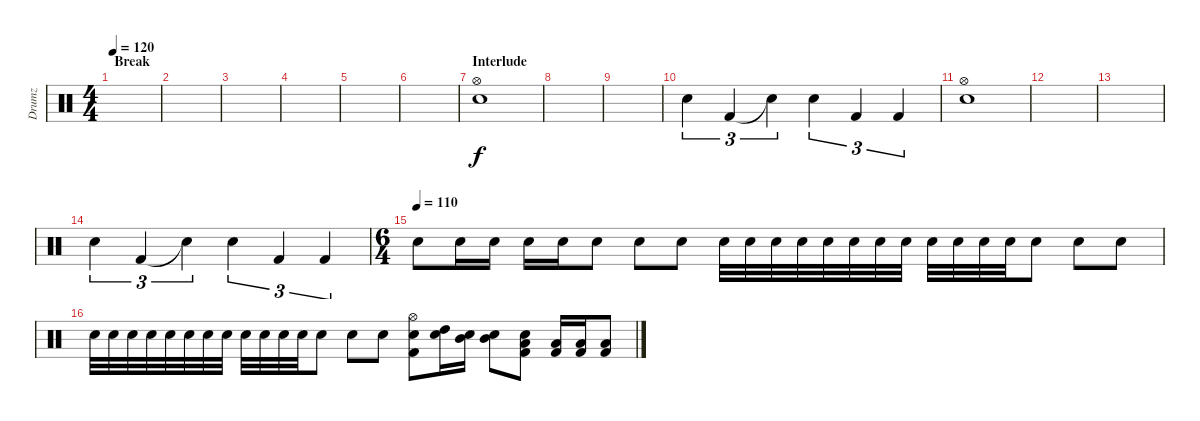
\track ("Drumz" "Drumz") {instrument percussion}
\staff {score}
\articulation defaults
\ts (4 4)
\section ("" "Break")
\tempo 120
\clef neutral
\ks c
|
|
|
|
|
|
\section ("" "Interlude")
("Hi-Hat (open)" "Snare (hit) 2").1 |
|
|
"Snare (hit) 2".4{tu (3 2)} "Kick (hit) 2".4{tu (3 2)} "Snare (hit)"{t}.4{tu (3 2)} "Snare (hit) 2".4{tu (3 2)} "Kick (hit) 2".4{tu (3 2)} "Kick (hit) 2".4{tu (3 2)} |
("Hi-Hat (open)" "Snare (hit) 2").1 |
|
|
"Snare (hit) 2".4{tu (3 2)} "Kick (hit) 2".4{tu (3 2)} "Snare (hit)"{t}.4{tu (3 2)} "Snare (hit) 2".4{tu (3 2)} "Kick (hit) 2".4{tu (3 2)} "Kick (hit) 2".4{tu (3 2)} |
\ts (6 4)
\tempo (110)
"Snare (hit) 2".8 "Snare (hit) 2".16 "Snare (hit) 2".16 "Snare (hit) 2".16 "Snare (hit) 2".16 "Snare (hit) 2".8 "Snare (hit) 2".8 "Snare (hit) 2".8 "Snare (hit) 2".32 "Snare (hit) 2".32 "Snare (hit) 2".32 "Snare (hit) 2".32 "Snare (hit) 2".32 "Snare (hit) 2".32 "Snare (hit) 2".32 "Snare (hit) 2".32 "Snare (hit) 2".32 "Snare (hit) 2".32 "Snare (hit) 2".32 "Snare (hit) 2".32 "Snare (hit) 2".8 "Snare (hit) 2".8 "Snare (hit) 2".8 |
"Snare (hit) 2".32 "Snare (hit) 2".32 "Snare (hit) 2".32 "Snare (hit) 2".32 "Snare (hit) 2".32 "Snare (hit) 2".32 "Snare (hit) 2".32 "Snare (hit) 2".32 "Snare (hit) 2".32 "Snare (hit) 2".32 "Snare (hit) 2".32 "Snare (hit) 2".32 "Snare (hit) 2".8 "Snare (hit) 2".8 "Snare (hit) 2".8 ("Hi-Hat (open)" "Snare (hit) 2" "Kick (hit) 2").8 ("High Tom (hit)" "Snare (hit) 2").16 ("Mid Tom (hit)" "Snare (hit) 2").16 ("Mid Tom (hit)" "Snare (hit) 2").8 ("Low Tom (hit)" "Snare (hit) 2" "Kick (hit) 2").8 ("Low Tom (hit)" "Kick (hit) 2").16 ("Low Tom (hit)" "Kick (hit) 2").16 ("Low Tom (hit)" "Kick (hit) 2").8
